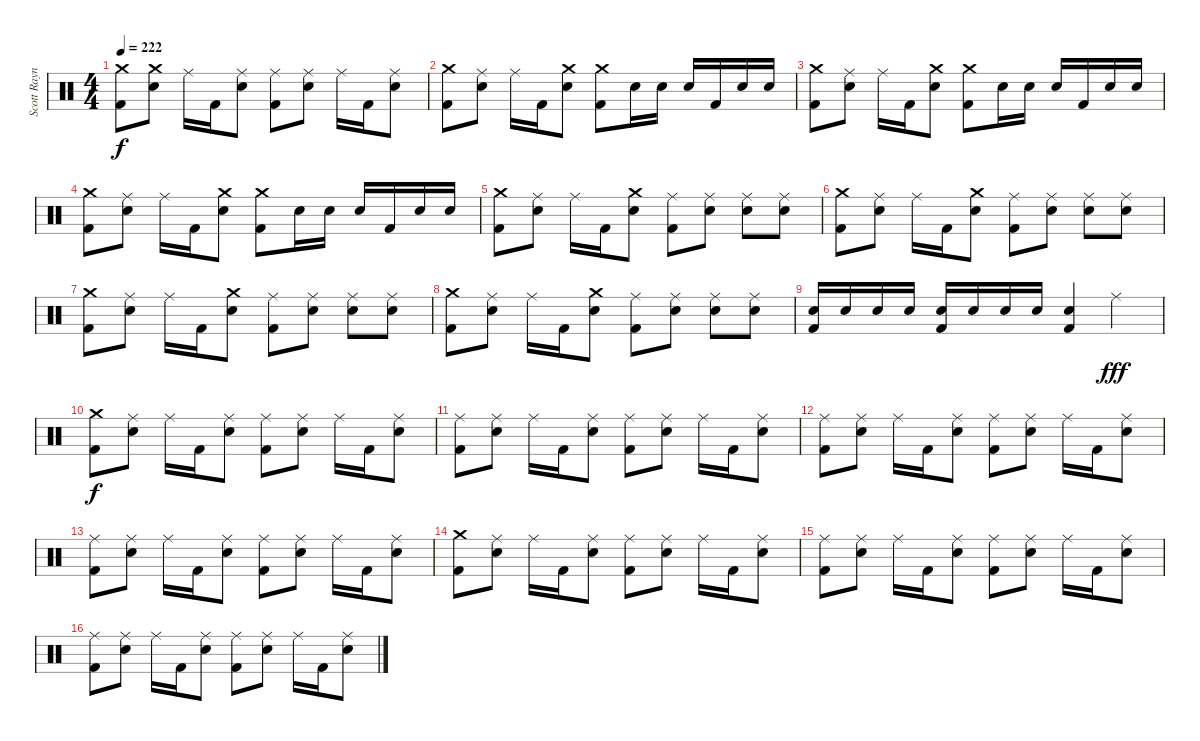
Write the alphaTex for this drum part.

\track ("Scott Raynor - Bateria/Drums" "Scott Rayn") {instrument percussion}
\staff {score}
\articulation defaults
\ts (4 4)
\tempo 222
\clef neutral
\ks c
("Crash medium (hit)" "Kick (hit) 2").8{dy f} ("Crash medium (hit)" "Electric Snare (hit)").8 "Ride (middle)".16 "Kick (hit) 2".16 ("Ride (middle)" "Electric Snare (hit)").8 ("Ride (middle)" "Kick (hit) 2").8 ("Ride (middle)" "Electric Snare (hit)").8 "Ride (middle)".16 "Kick (hit) 2".16 ("Ride (middle)" "Electric Snare (hit)").8 |
("Crash medium (hit)" "Kick (hit) 2").8 ("Ride (middle)" "Electric Snare (hit)").8 "Ride (middle)".16 "Kick (hit) 2".16 ("Crash medium (hit)" "Electric Snare (hit)").8 ("Crash medium (hit)" "Kick (hit) 2").8 "Electric Snare (hit)".16 "Electric Snare (hit)".16 "Electric Snare (hit)".16 "Kick (hit) 2".16 "Electric Snare (hit)".16 "Electric Snare (hit)".16 |
("Crash medium (hit)" "Kick (hit) 2").8 ("Ride (middle)" "Electric Snare (hit)").8 "Ride (middle)".16 "Kick (hit) 2".16 ("Crash medium (hit)" "Electric Snare (hit)").8 ("Crash medium (hit)" "Kick (hit) 2").8 "Electric Snare (hit)".16 "Electric Snare (hit)".16 "Electric Snare (hit)".16 "Kick (hit) 2".16 "Electric Snare (hit)".16 "Electric Snare (hit)".16 |
("Crash medium (hit)" "Kick (hit) 2").8 ("Ride (middle)" "Electric Snare (hit)").8 "Ride (middle)".16 "Kick (hit) 2".16 ("Crash medium (hit)" "Electric Snare (hit)").8 ("Crash medium (hit)" "Kick (hit) 2").8 "Electric Snare (hit)".16 "Electric Snare (hit)".16 "Electric Snare (hit)".16 "Kick (hit) 2".16 "Electric Snare (hit)".16 "Electric Snare (hit)".16 |
("Crash medium (hit)" "Kick (hit) 2").8 ("Ride (middle)" "Electric Snare (hit)").8 "Ride (middle)".16 "Kick (hit) 2".16 ("Crash medium (hit)" "Electric Snare (hit)").8 ("Ride (middle)" "Kick (hit) 2").8 ("Ride (middle)" "Electric Snare (hit)").8 ("Ride (middle)" "Electric Snare (hit)").8 ("Ride (middle)" "Electric Snare (hit)").8 |
("Crash medium (hit)" "Kick (hit) 2").8 ("Ride (middle)" "Electric Snare (hit)").8 "Ride (middle)".16 "Kick (hit) 2".16 ("Crash medium (hit)" "Electric Snare (hit)").8 ("Ride (middle)" "Kick (hit) 2").8 ("Ride (middle)" "Electric Snare (hit)").8 ("Ride (middle)" "Electric Snare (hit)").8 ("Ride (middle)" "Electric Snare (hit)").8 |
("Crash medium (hit)" "Kick (hit) 2").8 ("Ride (middle)" "Electric Snare (hit)").8 "Ride (middle)".16 "Kick (hit) 2".16 ("Crash medium (hit)" "Electric Snare (hit)").8 ("Ride (middle)" "Kick (hit) 2").8 ("Ride (middle)" "Electric Snare (hit)").8 ("Ride (middle)" "Electric Snare (hit)").8 ("Ride (middle)" "Electric Snare (hit)").8 |
("Crash medium (hit)" "Kick (hit) 2").8 ("Ride (middle)" "Electric Snare (hit)").8 "Ride (middle)".16 "Kick (hit) 2".16 ("Crash medium (hit)" "Electric Snare (hit)").8 ("Ride (middle)" "Kick (hit) 2").8 ("Ride (middle)" "Electric Snare (hit)").8 ("Ride (middle)" "Electric Snare (hit)").8 ("Ride (middle)" "Electric Snare (hit)").8 |
("Electric Snare (hit)" "Kick (hit) 2").16 "Electric Snare (hit)".16 "Electric Snare (hit)".16 "Electric Snare (hit)".16 ("Electric Snare (hit)" "Kick (hit) 2").16 "Electric Snare (hit)".16 "Electric Snare (hit)".16 "Electric Snare (hit)".16 ("Electric Snare (hit)" "Kick (hit) 2").4 "Ride (middle)".4{dy fff} |
("Crash medium (hit)" "Kick (hit) 2").8{dy f} ("Ride (middle)" "Electric Snare (hit)").8 "Ride (middle)".16 "Kick (hit) 2".16 ("Ride (middle)" "Electric Snare (hit)").8 ("Ride (middle)" "Kick (hit) 2").8 ("Ride (middle)" "Electric Snare (hit)").8 "Ride (middle)".16 "Kick (hit) 2".16 ("Ride (middle)" "Electric Snare (hit)").8 |
("Ride (middle)" "Kick (hit) 2").8 ("Ride (middle)" "Electric Snare (hit)").8 "Ride (middle)".16 "Kick (hit) 2".16 ("Ride (middle)" "Electric Snare (hit)").8 ("Ride (middle)" "Kick (hit) 2").8 ("Ride (middle)" "Electric Snare (hit)").8 "Ride (middle)".16 "Kick (hit) 2".16 ("Ride (middle)" "Electric Snare (hit)").8 |
("Ride (middle)" "Kick (hit) 2").8 ("Ride (middle)" "Electric Snare (hit)").8 "Ride (middle)".16 "Kick (hit) 2".16 ("Ride (middle)" "Electric Snare (hit)").8 ("Ride (middle)" "Kick (hit) 2").8 ("Ride (middle)" "Electric Snare (hit)").8 "Ride (middle)".16 "Kick (hit) 2".16 ("Ride (middle)" "Electric Snare (hit)").8 |
("Ride (middle)" "Kick (hit) 2").8 ("Ride (middle)" "Electric Snare (hit)").8 "Ride (middle)".16 "Kick (hit) 2".16 ("Ride (middle)" "Electric Snare (hit)").8 ("Ride (middle)" "Kick (hit) 2").8 ("Ride (middle)" "Electric Snare (hit)").8 "Ride (middle)".16 "Kick (hit) 2".16 ("Ride (middle)" "Electric Snare (hit)").8 |
("Crash medium (hit)" "Kick (hit) 2").8 ("Ride (middle)" "Electric Snare (hit)").8 "Ride (middle)".16 "Kick (hit) 2".16 ("Ride (middle)" "Electric Snare (hit)").8 ("Ride (middle)" "Kick (hit) 2").8 ("Ride (middle)" "Electric Snare (hit)").8 "Ride (middle)".16 "Kick (hit) 2".16 ("Ride (middle)" "Electric Snare (hit)").8 |
("Ride (middle)" "Kick (hit) 2").8 ("Ride (middle)" "Electric Snare (hit)").8 "Ride (middle)".16 "Kick (hit) 2".16 ("Ride (middle)" "Electric Snare (hit)").8 ("Ride (middle)" "Kick (hit) 2").8 ("Ride (middle)" "Electric Snare (hit)").8 "Ride (middle)".16 "Kick (hit) 2".16 ("Ride (middle)" "Electric Snare (hit)").8 |
("Ride (middle)" "Kick (hit) 2").8 ("Ride (middle)" "Electric Snare (hit)").8 "Ride (middle)".16 "Kick (hit) 2".16 ("Ride (middle)" "Electric Snare (hit)").8 ("Ride (middle)" "Kick (hit) 2").8 ("Ride (middle)" "Electric Snare (hit)").8 "Ride (middle)".16 "Kick (hit) 2".16 ("Ride (middle)" "Electric Snare (hit)").8
